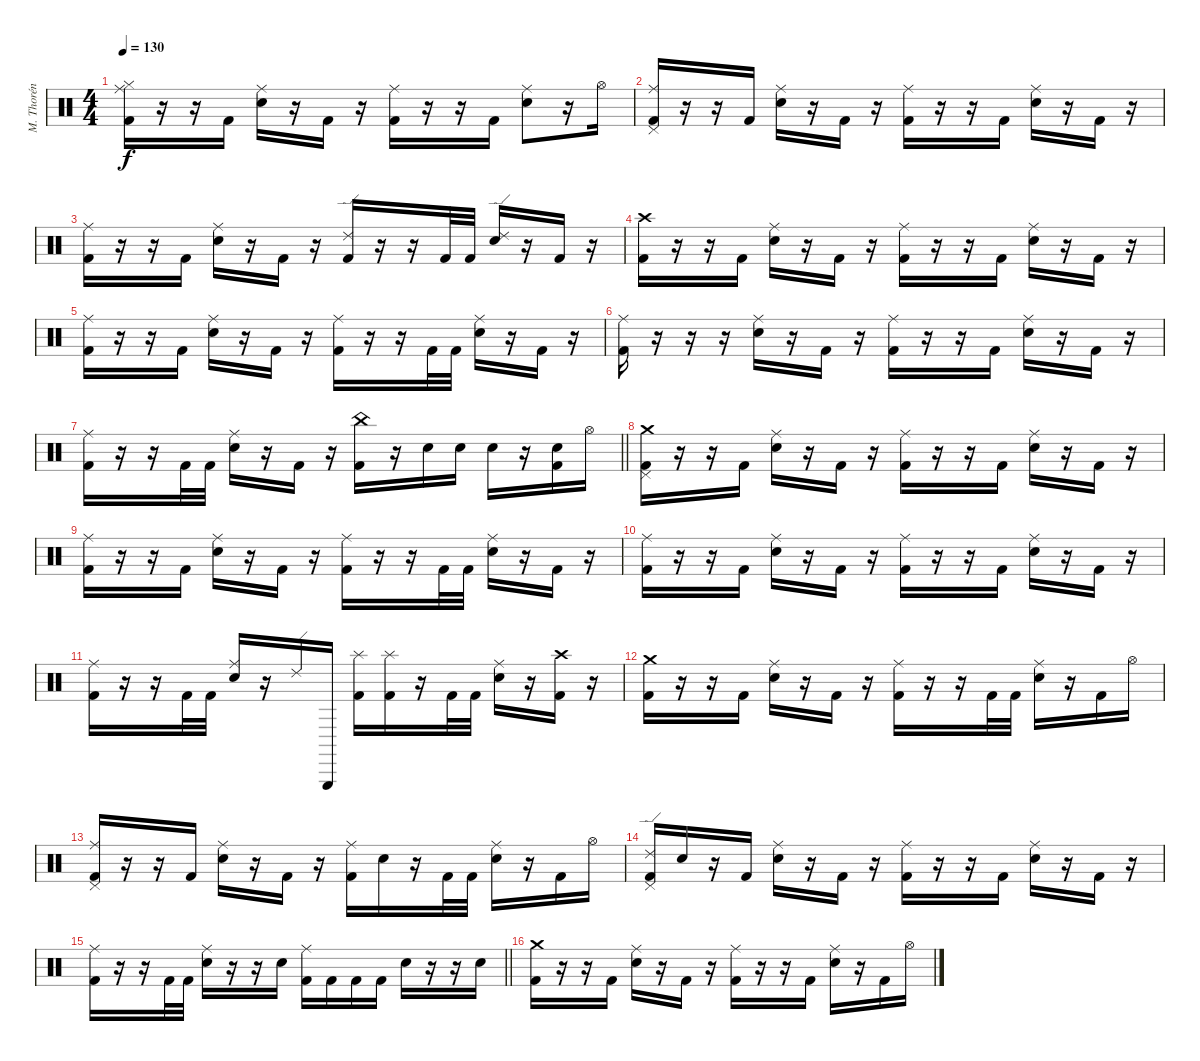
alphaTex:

\track ("M. Thorén (Drums)" "M. Thorén ") {instrument percussion}
\staff {score}
\articulation defaults
\ts (4 4)
\tempo 130
\clef neutral
\ks aminor
("Ride (middle)" "Hi-Hat (closed)" "Kick (hit) 2").16{dy f} r.16 r.16 "Kick (hit) 2".16 ("Ride (middle)" "Electric Snare (hit)").16 r.16 "Kick (hit) 2".16 r.16 ("Ride (middle)" "Kick (hit) 2").16 r.16 r.16 "Kick (hit) 2".16 ("Ride (middle)" "Electric Snare (hit)").8 r.16 "Hi-Hat (open)".16 |
("Ride (middle)" "Pedal Hi-Hat (hit)" "Kick (hit) 2").16 r.16 r.16 "Kick (hit) 2".16 ("Ride (middle)" "Electric Snare (hit)").16 r.16 "Kick (hit) 2".16 r.16 ("Ride (middle)" "Kick (hit) 2").16 r.16 r.16 "Kick (hit) 2".16 ("Ride (middle)" "Electric Snare (hit)").16 r.16 "Kick (hit) 2".16 r.16 |
("Ride (middle)" "Kick (hit) 2").16 r.16 r.16 "Kick (hit) 2".16 ("Ride (middle)" "Electric Snare (hit)").16 r.16 "Kick (hit) 2".16 r.16 ("Ride (edge) 2" "Kick (hit) 2").16 r.16 r.16 "Kick (hit) 2".32 "Kick (hit) 2".32 ("Ride (edge) 2" "Electric Snare (hit)").16 r.16 "Kick (hit) 2".16 r.16 |
("Crash high (hit)" "Kick (hit) 2").16 r.16 r.16 "Kick (hit) 2".16 ("Ride (middle)" "Electric Snare (hit)").16 r.16 "Kick (hit) 2".16 r.16 ("Ride (middle)" "Kick (hit) 2").16 r.16 r.16 "Kick (hit) 2".16 ("Ride (middle)" "Electric Snare (hit)").16 r.16 "Kick (hit) 2".16 r.16 |
("Ride (middle)" "Kick (hit) 2").16 r.16 r.16 "Kick (hit) 2".16 ("Ride (middle)" "Electric Snare (hit)").16 r.16 "Kick (hit) 2".16 r.16 ("Ride (middle)" "Kick (hit) 2").16 r.16 r.16 "Kick (hit) 2".32 "Kick (hit) 2".32 ("Ride (middle)" "Electric Snare (hit)").16 r.16 "Kick (hit) 2".16 r.16 |
("Ride (middle)" "Kick (hit) 2").16 r.16 r.16 r.16 ("Ride (middle)" "Electric Snare (hit)").16 r.16 "Kick (hit) 2".16 r.16 ("Ride (middle)" "Kick (hit) 2").16 r.16 r.16 "Kick (hit) 2".16 ("Ride (middle)" "Electric Snare (hit)").16 r.16 "Kick (hit) 2".16 r.16 |
\barLineRight lightlight
("Ride (middle)" "Kick (hit) 2").16 r.16 r.16 "Kick (hit) 2".32 "Kick (hit) 2".32 ("Ride (middle)" "Electric Snare (hit)").16 r.16 "Kick (hit) 2".16 r.16 ("China (hit)" "Kick (hit) 2").16 r.16 "Electric Snare (hit)".16 "Electric Snare (hit)".16 "Electric Snare (hit)".16 r.16 ("Electric Snare (hit)" "Kick (hit) 2").16 "Hi-Hat (open)".16 |
("Crash medium (hit)" "Pedal Hi-Hat (hit)" "Kick (hit) 2").16 r.16 r.16 "Kick (hit) 2".16 ("Ride (middle)" "Electric Snare (hit)").16 r.16 "Kick (hit) 2".16 r.16 ("Ride (middle)" "Kick (hit) 2").16 r.16 r.16 "Kick (hit) 2".16 ("Ride (middle)" "Electric Snare (hit)").16 r.16 "Kick (hit) 2".16 r.16 |
("Ride (middle)" "Kick (hit) 2").16 r.16 r.16 "Kick (hit) 2".16 ("Ride (middle)" "Electric Snare (hit)").16 r.16 "Kick (hit) 2".16 r.16 ("Ride (middle)" "Kick (hit) 2").16 r.16 r.16 "Kick (hit) 2".32 "Kick (hit) 2".32 ("Ride (middle)" "Electric Snare (hit)").16 r.16 "Kick (hit) 2".16 r.16 |
("Ride (middle)" "Kick (hit) 2").16 r.16 r.16 "Kick (hit) 2".16 ("Ride (middle)" "Electric Snare (hit)").16 r.16 "Kick (hit) 2".16 r.16 ("Ride (middle)" "Kick (hit) 2").16 r.16 r.16 "Kick (hit) 2".16 ("Ride (middle)" "Electric Snare (hit)").16 r.16 "Kick (hit) 2".16 r.16 |
("Ride (middle)" "Kick (hit) 2").16 r.16 r.16 "Kick (hit) 2".32 "Kick (hit) 2".32 ("Ride (middle)" "Electric Snare (hit)").16 r.16 "Ride (edge) 2".16 "Triangle (hit)".16 ("Splash (hit)" "Kick (hit) 2").16 ("Splash (hit)" "Kick (hit) 2").16 r.16 "Kick (hit) 2".32 "Kick (hit) 2".32 ("Ride (middle)" "Electric Snare (hit)").16 r.16 ("Crash high (hit)" "Kick (hit) 2").16 r.16 |
("Crash medium (hit)" "Kick (hit) 2").16 r.16 r.16 "Kick (hit) 2".16 ("Ride (middle)" "Electric Snare (hit)").16 r.16 "Kick (hit) 2".16 r.16 ("Ride (middle)" "Kick (hit) 2").16 r.16 r.16 "Kick (hit) 2".32 "Kick (hit) 2".32 ("Ride (middle)" "Electric Snare (hit)").16 r.16 "Kick (hit) 2".16 "Hi-Hat (open)".16 |
("Ride (middle)" "Pedal Hi-Hat (hit)" "Kick (hit) 2").16 r.16 r.16 "Kick (hit) 2".16 ("Ride (middle)" "Electric Snare (hit)").16 r.16 "Kick (hit) 2".16 r.16 ("Ride (middle)" "Kick (hit) 2").16 "Electric Snare (hit)".16 r.16 "Kick (hit) 2".32 "Kick (hit) 2".32 ("Ride (middle)" "Electric Snare (hit)").16 r.16 "Kick (hit) 2".16 "Hi-Hat (open)".16 |
("Ride (edge) 2" "Pedal Hi-Hat (hit)" "Kick (hit) 2").16 "Electric Snare (hit)".16 r.16 "Kick (hit) 2".16 ("Ride (middle)" "Electric Snare (hit)").16 r.16 "Kick (hit) 2".16 r.16 ("Ride (middle)" "Kick (hit) 2").16 r.16 r.16 "Kick (hit) 2".16 ("Ride (middle)" "Electric Snare (hit)").16 r.16 "Kick (hit) 2".16 r.16 |
\barLineRight lightlight
("Ride (middle)" "Kick (hit) 2").16 r.16 r.16 "Kick (hit) 2".32 "Kick (hit) 2".32 ("Ride (middle)" "Electric Snare (hit)").16 r.16 r.16 "Electric Snare (hit)".16 ("Ride (middle)" "Kick (hit) 2").16 "Kick (hit) 2".16 "Kick (hit) 2".16 "Kick (hit) 2".16 "Electric Snare (hit)".16 r.16 r.16 "Electric Snare (hit)".16 |
("Crash medium (hit)" "Kick (hit) 2").16 r.16 r.16 "Kick (hit) 2".16 ("Ride (middle)" "Electric Snare (hit)").16 r.16 "Kick (hit) 2".16 r.16 ("Ride (middle)" "Kick (hit) 2").16 r.16 r.16 "Kick (hit) 2".16 ("Ride (middle)" "Electric Snare (hit)").16 r.16 "Kick (hit) 2".16 "Hi-Hat (open)".16
